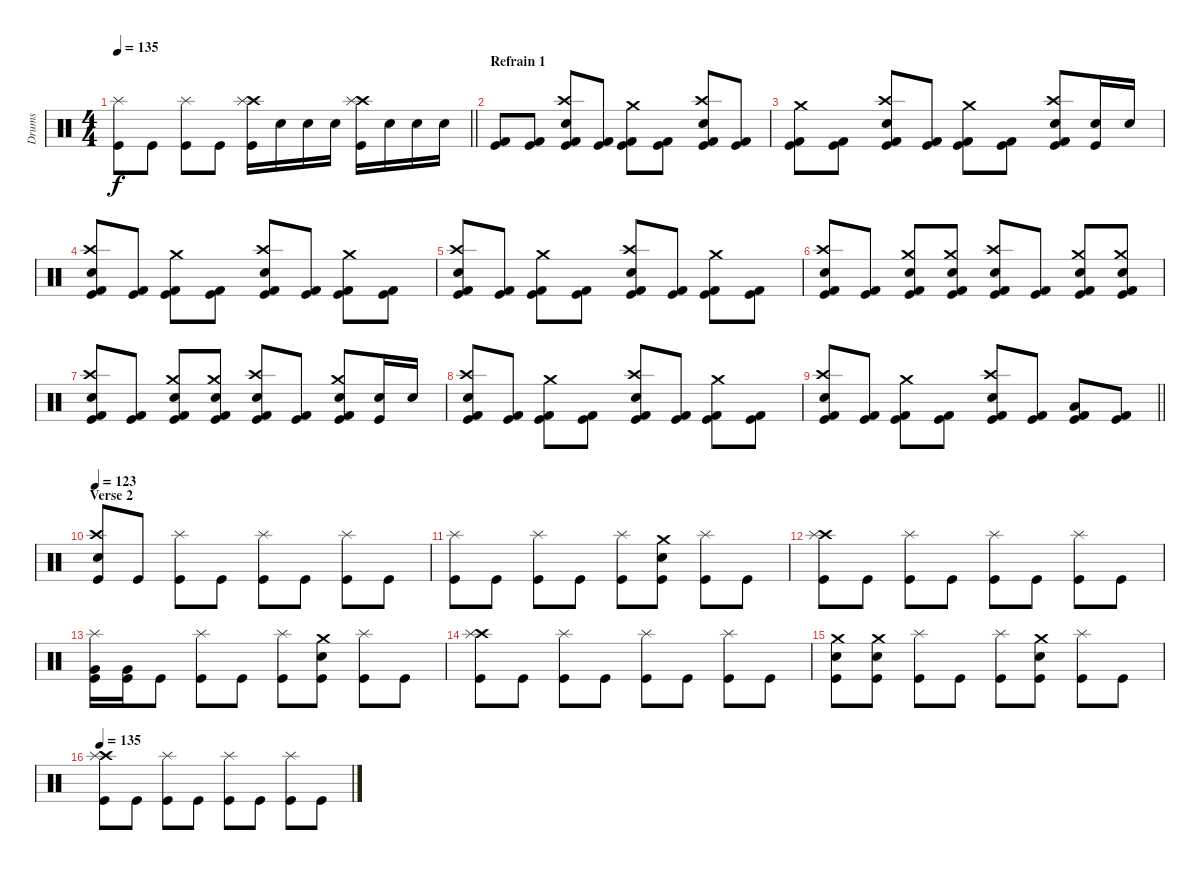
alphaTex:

\track ("Drums" "Drums") {instrument percussion}
\staff {score}
\articulation defaults
\ts (4 4)
\tempo 135
\clef neutral
\barLineRight lightlight
\ks c
("Splash (hit)" "Kick (hit)").8{dy f} "Kick (hit)".8 ("Splash (hit)" "Kick (hit)").8 "Kick (hit)".8 ("Crash high (hit)" "Splash (hit)" "Kick (hit)").16 "Snare (hit) 2".16 "Snare (hit) 2".16 "Snare (hit) 2".16 ("Crash high (hit)" "Splash (hit)" "Kick (hit)").16 "Snare (hit) 2".16 "Snare (hit) 2".16 "Snare (hit) 2".16 |
\section ("" "Refrain 1")
("Kick (hit) 2" "Kick (hit)").8 ("Kick (hit) 2" "Kick (hit)").8 ("Crash high (hit)" "Snare (hit) 2" "Kick (hit) 2" "Kick (hit)").8 ("Kick (hit) 2" "Kick (hit)").8 ("Crash medium (hit)" "Kick (hit) 2" "Kick (hit)").8 ("Kick (hit) 2" "Kick (hit)").8 ("Crash high (hit)" "Snare (hit) 2" "Kick (hit) 2" "Kick (hit)").8 ("Kick (hit) 2" "Kick (hit)").8 |
("Crash medium (hit)" "Kick (hit) 2" "Kick (hit)").8 ("Kick (hit) 2" "Kick (hit)").8 ("Crash high (hit)" "Snare (hit) 2" "Kick (hit) 2" "Kick (hit)").8 ("Kick (hit) 2" "Kick (hit)").8 ("Crash medium (hit)" "Kick (hit) 2" "Kick (hit)").8 ("Kick (hit) 2" "Kick (hit)").8 ("Crash high (hit)" "Snare (hit) 2" "Kick (hit) 2" "Kick (hit)").8 ("Snare (hit) 2" "Kick (hit)").16 "Snare (hit) 2".16 |
("Crash high (hit)" "Snare (hit) 2" "Kick (hit) 2" "Kick (hit)").8 ("Kick (hit) 2" "Kick (hit)").8 ("Crash medium (hit)" "Kick (hit) 2" "Kick (hit)").8 ("Kick (hit) 2" "Kick (hit)").8 ("Crash high (hit)" "Snare (hit) 2" "Kick (hit) 2" "Kick (hit)").8 ("Kick (hit) 2" "Kick (hit)").8 ("Crash medium (hit)" "Kick (hit) 2" "Kick (hit)").8 ("Kick (hit) 2" "Kick (hit)").8 |
("Crash high (hit)" "Snare (hit) 2" "Kick (hit) 2" "Kick (hit)").8 ("Kick (hit) 2" "Kick (hit)").8 ("Crash medium (hit)" "Kick (hit) 2" "Kick (hit)").8 ("Kick (hit) 2" "Kick (hit)").8 ("Crash high (hit)" "Snare (hit) 2" "Kick (hit) 2" "Kick (hit)").8 ("Kick (hit) 2" "Kick (hit)").8 ("Crash medium (hit)" "Kick (hit) 2" "Kick (hit)").8 ("Kick (hit) 2" "Kick (hit)").8 |
("Crash high (hit)" "Snare (hit) 2" "Kick (hit) 2" "Kick (hit)").8 ("Kick (hit) 2" "Kick (hit)").8 ("Crash medium (hit)" "Electric Snare (hit)" "Kick (hit) 2" "Kick (hit)").8 ("Crash medium (hit)" "Electric Snare (hit)" "Kick (hit) 2" "Kick (hit)").8 ("Crash high (hit)" "Snare (hit) 2" "Kick (hit) 2" "Kick (hit)").8 ("Kick (hit) 2" "Kick (hit)").8 ("Crash medium (hit)" "Electric Snare (hit)" "Kick (hit) 2" "Kick (hit)").8 ("Crash medium (hit)" "Electric Snare (hit)" "Kick (hit) 2" "Kick (hit)").8 |
("Crash high (hit)" "Snare (hit) 2" "Kick (hit) 2" "Kick (hit)").8 ("Kick (hit) 2" "Kick (hit)").8 ("Crash medium (hit)" "Electric Snare (hit)" "Kick (hit) 2" "Kick (hit)").8 ("Crash medium (hit)" "Electric Snare (hit)" "Kick (hit) 2" "Kick (hit)").8 ("Crash high (hit)" "Snare (hit) 2" "Kick (hit) 2" "Kick (hit)").8 ("Kick (hit) 2" "Kick (hit)").8 ("Crash medium (hit)" "Electric Snare (hit)" "Kick (hit) 2" "Kick (hit)").8 ("Snare (hit) 2" "Kick (hit)").16 "Snare (hit) 2".16 |
("Crash high (hit)" "Snare (hit) 2" "Kick (hit) 2" "Kick (hit)").8 ("Kick (hit) 2" "Kick (hit)").8 ("Crash medium (hit)" "Kick (hit) 2" "Kick (hit)").8 ("Kick (hit) 2" "Kick (hit)").8 ("Crash high (hit)" "Snare (hit) 2" "Kick (hit) 2" "Kick (hit)").8 ("Kick (hit) 2" "Kick (hit)").8 ("Crash medium (hit)" "Kick (hit) 2" "Kick (hit)").8 ("Kick (hit) 2" "Kick (hit)").8 |
\barLineRight lightlight
("Crash high (hit)" "Snare (hit) 2" "Kick (hit) 2" "Kick (hit)").8 ("Kick (hit) 2" "Kick (hit)").8 ("Crash medium (hit)" "Kick (hit) 2" "Kick (hit)").8 ("Kick (hit) 2" "Kick (hit)").8 ("Crash high (hit)" "Snare (hit) 2" "Kick (hit) 2" "Kick (hit)").8 ("Kick (hit) 2" "Kick (hit)").8 ("Low Floor Tom (hit)" "Kick (hit) 2" "Kick (hit)").8 ("Kick (hit) 2" "Kick (hit)").8 |
\section ("" "Verse 2")
\tempo 123
("Crash high (hit)" "Snare (hit) 2" "Kick (hit)").8 "Kick (hit)".8 ("Splash (hit)" "Kick (hit)").8 "Kick (hit)".8 ("Splash (hit)" "Kick (hit)").8 "Kick (hit)".8 ("Splash (hit)" "Kick (hit)").8 "Kick (hit)".8 |
("Splash (hit)" "Kick (hit)").8 "Kick (hit)".8 ("Splash (hit)" "Kick (hit)").8 "Kick (hit)".8 ("Splash (hit)" "Kick (hit)").8 ("Crash medium (hit)" "Snare (hit) 2" "Kick (hit)").8 ("Splash (hit)" "Kick (hit)").8 "Kick (hit)".8 |
("Crash high (hit)" "Splash (hit)" "Kick (hit)").8 "Kick (hit)".8 ("Splash (hit)" "Kick (hit)").8 "Kick (hit)".8 ("Splash (hit)" "Kick (hit)").8 "Kick (hit)".8 ("Splash (hit)" "Kick (hit)").8 "Kick (hit)".8 |
("Splash (hit)" "Very Low Tom (hit)" "Kick (hit)").16 ("Very Low Tom (hit)" "Kick (hit)").16 "Kick (hit)".8 ("Splash (hit)" "Kick (hit)").8 "Kick (hit)".8 ("Splash (hit)" "Kick (hit)").8 ("Crash medium (hit)" "Snare (hit) 2" "Kick (hit)").8 ("Splash (hit)" "Kick (hit)").8 "Kick (hit)".8 |
("Crash high (hit)" "Splash (hit)" "Kick (hit)").8 "Kick (hit)".8 ("Splash (hit)" "Kick (hit)").8 "Kick (hit)".8 ("Splash (hit)" "Kick (hit)").8 "Kick (hit)".8 ("Splash (hit)" "Kick (hit)").8 "Kick (hit)".8 |
("Crash medium (hit)" "Snare (hit) 2" "Kick (hit)").8 ("Crash medium (hit)" "Snare (hit) 2" "Kick (hit)").8 ("Splash (hit)" "Kick (hit)").8 "Kick (hit)".8 ("Splash (hit)" "Kick (hit)").8 ("Crash medium (hit)" "Snare (hit) 2" "Kick (hit)").8 ("Splash (hit)" "Kick (hit)").8 "Kick (hit)".8 |
\tempo 135
("Crash high (hit)" "Splash (hit)" "Kick (hit)").8 "Kick (hit)".8 ("Splash (hit)" "Kick (hit)").8 "Kick (hit)".8 ("Splash (hit)" "Kick (hit)").8 "Kick (hit)".8 ("Splash (hit)" "Kick (hit)").8 "Kick (hit)".8
